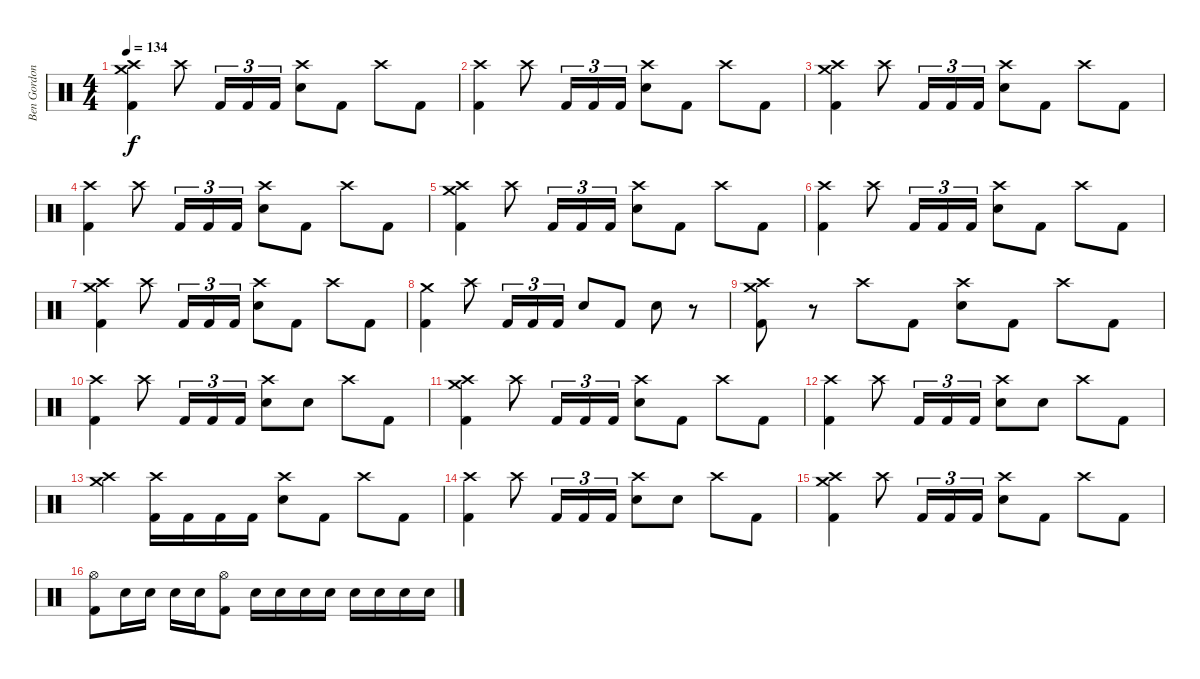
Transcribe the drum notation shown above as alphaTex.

\track ("Ben Gordon" "Ben Gordon") {instrument percussion}
\staff {score}
\articulation defaults
\ts (4 4)
\tempo 134
\clef neutral
\ks c
("Crash medium (hit)" "Crash high (hit)" "Kick (hit) 2").4{dy f} "Crash high (hit)".8 "Kick (hit) 2".16{tu (3 2)} "Kick (hit) 2".16{tu (3 2)} "Kick (hit) 2".16{tu (3 2)} ("Crash high (hit)" "Electric Snare (hit)").8 "Kick (hit) 2".8 "Crash high (hit)".8 "Kick (hit) 2".8 |
("Crash high (hit)" "Kick (hit) 2").4 "Crash high (hit)".8 "Kick (hit) 2".16{tu (3 2)} "Kick (hit) 2".16{tu (3 2)} "Kick (hit) 2".16{tu (3 2)} ("Crash high (hit)" "Electric Snare (hit)").8 "Kick (hit) 2".8 "Crash high (hit)".8 "Kick (hit) 2".8 |
("Crash medium (hit)" "Crash high (hit)" "Kick (hit) 2").4 "Crash high (hit)".8 "Kick (hit) 2".16{tu (3 2)} "Kick (hit) 2".16{tu (3 2)} "Kick (hit) 2".16{tu (3 2)} ("Crash high (hit)" "Electric Snare (hit)").8 "Kick (hit) 2".8 "Crash high (hit)".8 "Kick (hit) 2".8 |
("Crash high (hit)" "Kick (hit) 2").4 "Crash high (hit)".8 "Kick (hit) 2".16{tu (3 2)} "Kick (hit) 2".16{tu (3 2)} "Kick (hit) 2".16{tu (3 2)} ("Crash high (hit)" "Electric Snare (hit)").8 "Kick (hit) 2".8 "Crash high (hit)".8 "Kick (hit) 2".8 |
("Crash medium (hit)" "Crash high (hit)" "Kick (hit) 2").4 "Crash high (hit)".8 "Kick (hit) 2".16{tu (3 2)} "Kick (hit) 2".16{tu (3 2)} "Kick (hit) 2".16{tu (3 2)} ("Crash high (hit)" "Electric Snare (hit)").8 "Kick (hit) 2".8 "Crash high (hit)".8 "Kick (hit) 2".8 |
("Crash high (hit)" "Kick (hit) 2").4 "Crash high (hit)".8 "Kick (hit) 2".16{tu (3 2)} "Kick (hit) 2".16{tu (3 2)} "Kick (hit) 2".16{tu (3 2)} ("Crash high (hit)" "Electric Snare (hit)").8 "Kick (hit) 2".8 "Crash high (hit)".8 "Kick (hit) 2".8 |
("Crash medium (hit)" "Crash high (hit)" "Kick (hit) 2").4 "Crash high (hit)".8 "Kick (hit) 2".16{tu (3 2)} "Kick (hit) 2".16{tu (3 2)} "Kick (hit) 2".16{tu (3 2)} ("Crash high (hit)" "Electric Snare (hit)").8 "Kick (hit) 2".8 "Crash high (hit)".8 "Kick (hit) 2".8 |
("Crash medium (hit)" "Kick (hit) 2").4 "Crash high (hit)".8 "Kick (hit) 2".16{tu (3 2)} "Kick (hit) 2".16{tu (3 2)} "Kick (hit) 2".16{tu (3 2)} "Electric Snare (hit)".8 "Kick (hit) 2".8 "Electric Snare (hit)".8 r.8 |
("Crash medium (hit)" "Crash high (hit)" "Kick (hit) 2").8 r.8 "Crash high (hit)".8 "Kick (hit) 2".8 ("Crash high (hit)" "Electric Snare (hit)").8 "Kick (hit) 2".8 "Crash high (hit)".8 "Kick (hit) 2".8 |
("Crash high (hit)" "Kick (hit) 2").4 "Crash high (hit)".8 "Kick (hit) 2".16{tu (3 2)} "Kick (hit) 2".16{tu (3 2)} "Kick (hit) 2".16{tu (3 2)} ("Crash high (hit)" "Electric Snare (hit)").8 "Electric Snare (hit)".8 "Crash high (hit)".8 "Kick (hit) 2".8 |
("Crash high (hit)" "Crash medium (hit)" "Kick (hit) 2").4 "Crash high (hit)".8 "Kick (hit) 2".16{tu (3 2)} "Kick (hit) 2".16{tu (3 2)} "Kick (hit) 2".16{tu (3 2)} ("Crash high (hit)" "Electric Snare (hit)").8 "Kick (hit) 2".8 "Crash high (hit)".8 "Kick (hit) 2".8 |
("Crash high (hit)" "Kick (hit) 2").4 "Crash high (hit)".8 "Kick (hit) 2".16{tu (3 2)} "Kick (hit) 2".16{tu (3 2)} "Kick (hit) 2".16{tu (3 2)} ("Crash high (hit)" "Electric Snare (hit)").8 "Electric Snare (hit)".8 "Crash high (hit)".8 "Kick (hit) 2".8 |
("Crash medium (hit)" "Crash high (hit)").4 ("Crash high (hit)" "Kick (hit) 2").16 "Kick (hit) 2".16 "Kick (hit) 2".16 "Kick (hit) 2".16 ("Crash high (hit)" "Electric Snare (hit)").8 "Kick (hit) 2".8 "Crash high (hit)".8 "Kick (hit) 2".8 |
("Crash high (hit)" "Kick (hit) 2").4 "Crash high (hit)".8 "Kick (hit) 2".16{tu (3 2)} "Kick (hit) 2".16{tu (3 2)} "Kick (hit) 2".16{tu (3 2)} ("Crash high (hit)" "Electric Snare (hit)").8 "Electric Snare (hit)".8 "Crash high (hit)".8 "Kick (hit) 2".8 |
("Crash high (hit)" "Crash medium (hit)" "Kick (hit) 2").4 "Crash high (hit)".8 "Kick (hit) 2".16{tu (3 2)} "Kick (hit) 2".16{tu (3 2)} "Kick (hit) 2".16{tu (3 2)} ("Crash high (hit)" "Electric Snare (hit)").8 "Kick (hit) 2".8 "Crash high (hit)".8 "Kick (hit) 2".8 |
("Hi-Hat (open)" "Kick (hit) 2").8 "Electric Snare (hit)".16 "Electric Snare (hit)".16 "Electric Snare (hit)".16 "Electric Snare (hit)".16 ("Hi-Hat (open)" "Kick (hit) 2").8 "Electric Snare (hit)".16 "Electric Snare (hit)".16 "Electric Snare (hit)".16 "Electric Snare (hit)".16 "Electric Snare (hit)".16 "Electric Snare (hit)".16 "Electric Snare (hit)".16 "Electric Snare (hit)".16
